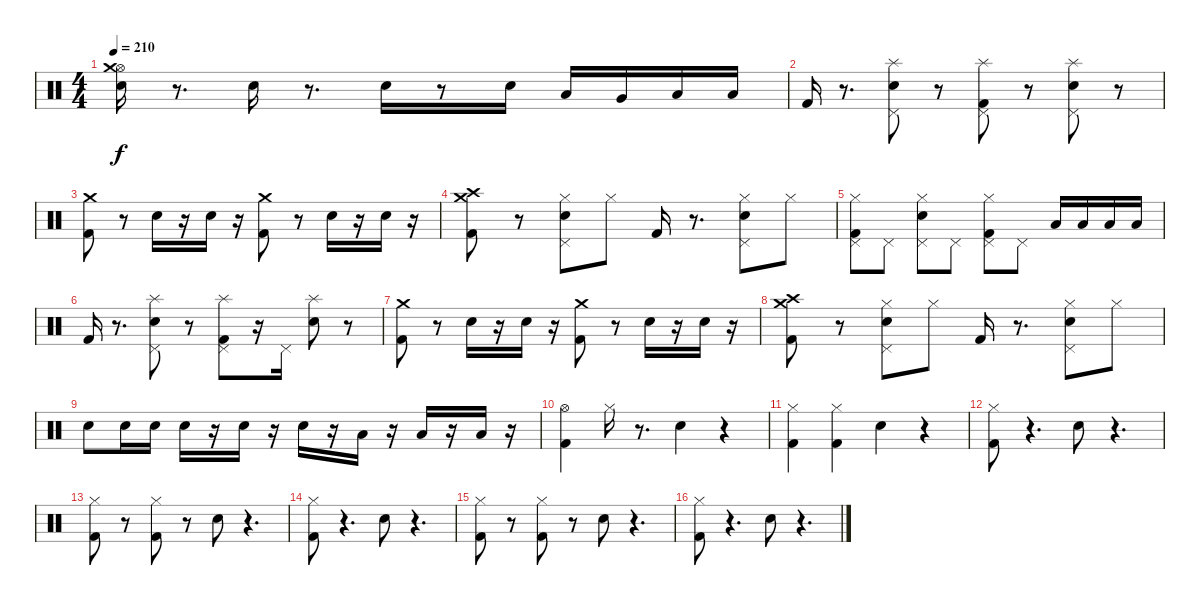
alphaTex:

\track "" {instrument percussion}
\staff {score}
\articulation defaults
\ts (4 4)
\tempo 210
\clef neutral
\ks c
("Hi-Hat (open)" "Crash medium (hit)" "Electric Snare (hit)").16{dy f} r.8{d} "Electric Snare (hit)".16 r.8{d} "Electric Snare (hit)".16 r.8 "Snare (hit) 2".16 "Low Tom (hit)".16 "Very Low Tom (hit)".16 "Low Floor Tom (hit)".16 "Low Floor Tom (hit)".16 |
"Kick (hit) 2".16 r.8{d} ("Pedal Hi-Hat (hit)" "Splash (hit)" "Snare (hit) 2").8 r.8 ("Pedal Hi-Hat (hit)" "Splash (hit)" "Kick (hit) 2").8 r.8 ("Pedal Hi-Hat (hit)" "Splash (hit)" "Snare (hit) 2").8 r.8 |
("Crash medium (hit)" "Kick (hit) 2").8 r.8 "Snare (hit) 2".16 r.16 "Snare (hit) 2".16 r.16 ("Crash medium (hit)" "Kick (hit) 2").8 r.8 "Snare (hit) 2".16 r.16 "Snare (hit) 2".16 r.16 |
("Crash high (hit)" "Crash medium (hit)" "Kick (hit) 2").8 r.8 ("Hi-Hat (closed)" "Pedal Hi-Hat (hit)" "Snare (hit) 2").8 "Hi-Hat (closed)".8 "Kick (hit) 2".16 r.8{d} ("Hi-Hat (closed)" "Pedal Hi-Hat (hit)" "Snare (hit) 2").8 "Hi-Hat (closed)".8 |
("Hi-Hat (closed)" "Pedal Hi-Hat (hit)" "Kick (hit) 2").8 "Pedal Hi-Hat (hit)".8 ("Hi-Hat (closed)" "Pedal Hi-Hat (hit)" "Snare (hit) 2").8 "Pedal Hi-Hat (hit)".8 ("Hi-Hat (closed)" "Pedal Hi-Hat (hit)" "Kick (hit) 2").8 "Pedal Hi-Hat (hit)".8 "Low Tom (hit)".16 "Low Tom (hit)".16 "Low Tom (hit)".16 "Low Tom (hit)".16 |
"Kick (hit) 2".16 r.8{d} ("Pedal Hi-Hat (hit)" "Splash (hit)" "Snare (hit) 2").8 r.8 ("Pedal Hi-Hat (hit)" "Splash (hit)" "Kick (hit) 2").8 r.16 "Pedal Hi-Hat (hit)".16 ("Splash (hit)" "Snare (hit) 2").8 r.8 |
("Crash medium (hit)" "Kick (hit) 2").8 r.8 "Snare (hit) 2".16 r.16 "Snare (hit) 2".16 r.16 ("Crash medium (hit)" "Kick (hit) 2").8 r.8 "Snare (hit) 2".16 r.16 "Snare (hit) 2".16 r.16 |
("Crash high (hit)" "Crash medium (hit)" "Kick (hit) 2").8 r.8 ("Hi-Hat (closed)" "Pedal Hi-Hat (hit)" "Snare (hit) 2").8 "Hi-Hat (closed)".8 "Kick (hit) 2".16 r.8{d} ("Hi-Hat (closed)" "Pedal Hi-Hat (hit)" "Snare (hit) 2").8 "Hi-Hat (closed)".8 |
"Electric Snare (hit)".8 "Electric Snare (hit)".16 "Electric Snare (hit)".16 "Electric Snare (hit)".16 r.16 "Electric Snare (hit)".16 r.16 "Snare (hit) 2".16 r.16 "Low Tom (hit)".16 r.16 "Low Tom (hit)".16 r.16 "Low Tom (hit)".16 r.16 |
("Hi-Hat (open)" "Kick (hit) 2").4 "Hi-Hat (closed)".16 r.8{d} "Snare (hit) 2".4 r.4 |
("Hi-Hat (closed)" "Kick (hit) 2").4 ("Hi-Hat (closed)" "Kick (hit) 2").4 "Snare (hit) 2".4 r.4 |
("Hi-Hat (closed)" "Kick (hit) 2").8 r.4{d} "Snare (hit) 2".8 r.4{d} |
("Hi-Hat (closed)" "Kick (hit) 2").8 r.8 ("Hi-Hat (closed)" "Kick (hit) 2").8 r.8 "Snare (hit) 2".8 r.4{d} |
("Hi-Hat (closed)" "Kick (hit) 2").8 r.4{d} "Snare (hit) 2".8 r.4{d} |
("Hi-Hat (closed)" "Kick (hit) 2").8 r.8 ("Hi-Hat (closed)" "Kick (hit) 2").8 r.8 "Snare (hit) 2".8 r.4{d} |
("Hi-Hat (closed)" "Kick (hit) 2").8 r.4{d} "Snare (hit) 2".8 r.4{d}
